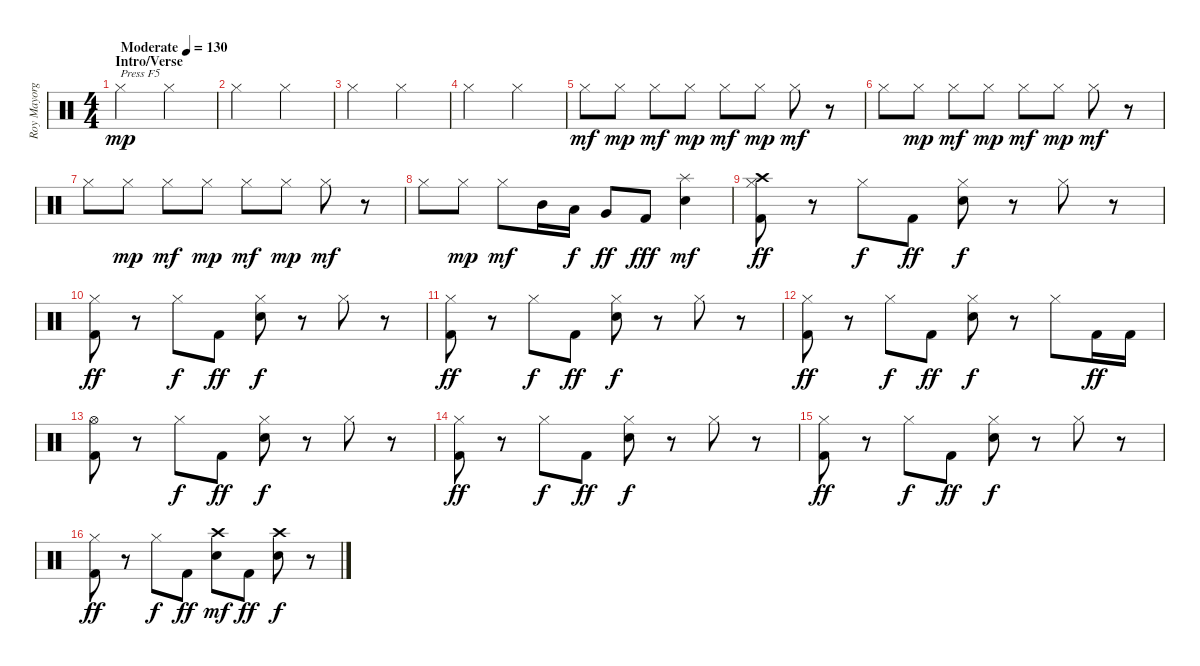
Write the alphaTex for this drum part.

\track ("Roy Mayorga (Drums)" "Roy Mayorg") {instrument percussion}
\staff {score}
\articulation defaults
\ts (4 4)
\section ("" "Intro/Verse")
\tempo (130 "Moderate")
\clef neutral
\ks c "Hi-Hat (closed)".2{txt "Press F5" dy mp} "Hi-Hat (closed)".2
|
"Hi-Hat (closed)".2 "Hi-Hat (closed)".2 |
"Hi-Hat (closed)".2 "Hi-Hat (closed)".2 |
"Hi-Hat (closed)".2 "Hi-Hat (closed)".2 |
"Hi-Hat (closed)".8{dy mf} "Hi-Hat (closed)".8{dy mp} "Hi-Hat (closed)".8{dy mf} "Hi-Hat (closed)".8{dy mp} "Hi-Hat (closed)".8{dy mf} "Hi-Hat (closed)".8{dy mp} "Hi-Hat (closed)".8{dy mf} r.8 |
"Hi-Hat (closed)".8 "Hi-Hat (closed)".8{dy mp} "Hi-Hat (closed)".8{dy mf} "Hi-Hat (closed)".8{dy mp} "Hi-Hat (closed)".8{dy mf} "Hi-Hat (closed)".8{dy mp} "Hi-Hat (closed)".8{dy mf} r.8 |
"Hi-Hat (closed)".8 "Hi-Hat (closed)".8{dy mp} "Hi-Hat (closed)".8{dy mf} "Hi-Hat (closed)".8{dy mp} "Hi-Hat (closed)".8{dy mf} "Hi-Hat (closed)".8{dy mp} "Hi-Hat (closed)".8{dy mf} r.8 |
"Hi-Hat (closed)".8 "Hi-Hat (closed)".8{dy mp} "Hi-Hat (closed)".8{dy mf} "Mid Tom (hit)".16 "Low Tom (hit)".16{dy f} "Very Low Tom (hit)".8{dy ff balance 8} "Kick (hit) 2".8{dy fff} ("Splash (hit)" "Snare (hit) 2").4{dy mf} |
("Crash high (hit)" "Hi-Hat (closed)" "Kick (hit) 2").8{dy ff} r.8 "Hi-Hat (closed)".8{dy f} "Kick (hit) 2".8{dy ff} ("Hi-Hat (closed)" "Snare (hit) 2").8{dy f} r.8 "Hi-Hat (closed)".8 r.8 |
("Hi-Hat (closed)" "Kick (hit) 2").8{dy ff} r.8 "Hi-Hat (closed)".8{dy f} "Kick (hit) 2".8{dy ff} ("Hi-Hat (closed)" "Snare (hit) 2").8{dy f} r.8 "Hi-Hat (closed)".8 r.8 |
("Hi-Hat (closed)" "Kick (hit) 2").8{dy ff} r.8 "Hi-Hat (closed)".8{dy f} "Kick (hit) 2".8{dy ff} ("Hi-Hat (closed)" "Snare (hit) 2").8{dy f} r.8 "Hi-Hat (closed)".8 r.8 |
("Hi-Hat (closed)" "Kick (hit) 2").8{dy ff} r.8 "Hi-Hat (closed)".8{dy f} "Kick (hit) 2".8{dy ff} ("Hi-Hat (closed)" "Snare (hit) 2").8{dy f} r.8 "Hi-Hat (closed)".8 "Kick (hit) 2".16{dy ff} "Kick (hit) 2".16 |
("Hi-Hat (open)" "Kick (hit) 2").8 r.8 "Hi-Hat (closed)".8{dy f} "Kick (hit) 2".8{dy ff} ("Hi-Hat (closed)" "Snare (hit) 2").8{dy f} r.8 "Hi-Hat (closed)".8 r.8 |
("Hi-Hat (closed)" "Kick (hit) 2").8{dy ff} r.8 "Hi-Hat (closed)".8{dy f} "Kick (hit) 2".8{dy ff} ("Hi-Hat (closed)" "Snare (hit) 2").8{dy f} r.8 "Hi-Hat (closed)".8 r.8 |
("Hi-Hat (closed)" "Kick (hit) 2").8{dy ff} r.8 "Hi-Hat (closed)".8{dy f} "Kick (hit) 2".8{dy ff} ("Hi-Hat (closed)" "Snare (hit) 2").8{dy f} r.8 "Hi-Hat (closed)".8 r.8 |
("Hi-Hat (closed)" "Kick (hit) 2").8{dy ff} r.8 "Hi-Hat (closed)".8{dy f} "Kick (hit) 2".8{dy ff} ("Crash high (hit)" "Snare (hit) 2").8{dy mf balance 3} "Kick (hit) 2".8{dy ff} ("Crash high (hit)" "Snare (hit) 2").8{dy f balance 8} r.8
